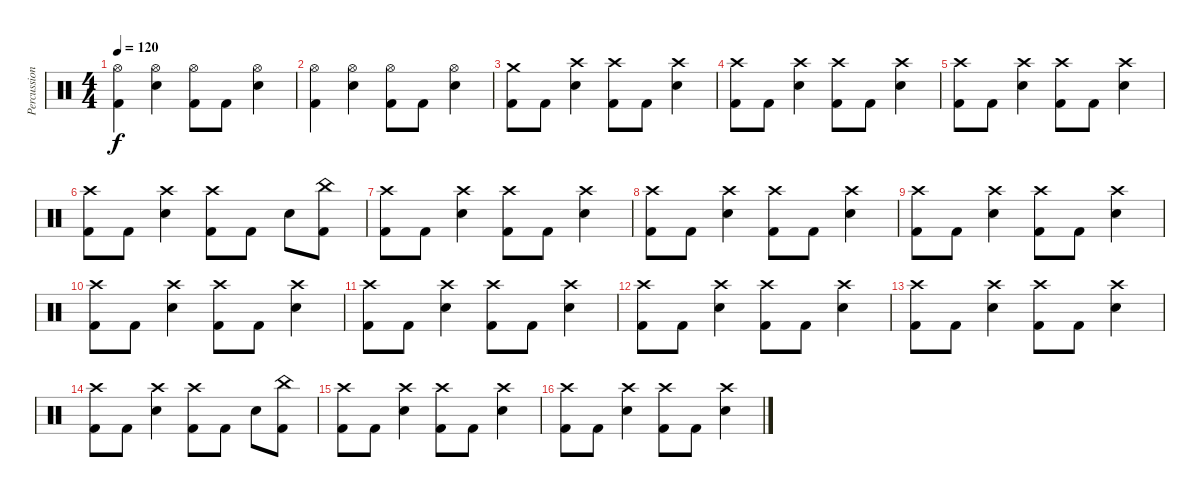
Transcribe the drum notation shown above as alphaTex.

\track ("Percussion" "Percussion") {instrument percussion}
\staff {score}
\articulation defaults
\ts (4 4)
\tempo 120
\clef neutral
\ks c
("Hi-Hat (open)" "Kick (hit) 2").4{dy f} ("Hi-Hat (open)" "Snare (hit) 2").4 ("Hi-Hat (open)" "Kick (hit) 2").8 "Kick (hit) 2".8 ("Hi-Hat (open)" "Snare (hit) 2").4 |
("Hi-Hat (open)" "Kick (hit) 2").4 ("Hi-Hat (open)" "Snare (hit) 2").4 ("Hi-Hat (open)" "Kick (hit) 2").8 "Kick (hit) 2".8 ("Hi-Hat (open)" "Snare (hit) 2").4 |
("Crash medium (hit)" "Kick (hit) 2").8 "Kick (hit) 2".8 ("Crash high (hit)" "Snare (hit) 2").4 ("Crash high (hit)" "Kick (hit) 2").8 "Kick (hit) 2".8 ("Crash high (hit)" "Snare (hit) 2").4 |
("Crash high (hit)" "Kick (hit) 2").8 "Kick (hit) 2".8 ("Crash high (hit)" "Snare (hit) 2").4 ("Crash high (hit)" "Kick (hit) 2").8 "Kick (hit) 2".8 ("Crash high (hit)" "Snare (hit) 2").4 |
("Crash high (hit)" "Kick (hit) 2").8 "Kick (hit) 2".8 ("Crash high (hit)" "Snare (hit) 2").4 ("Crash high (hit)" "Kick (hit) 2").8 "Kick (hit) 2".8 ("Crash high (hit)" "Snare (hit) 2").4 |
("Crash high (hit)" "Kick (hit) 2").8 "Kick (hit) 2".8 ("Crash high (hit)" "Snare (hit) 2").4 ("Crash high (hit)" "Kick (hit) 2").8 "Kick (hit) 2".8 "Snare (hit) 2".8 ("China (hit)" "Kick (hit) 2").8 |
("Crash high (hit)" "Kick (hit) 2").8 "Kick (hit) 2".8 ("Crash high (hit)" "Snare (hit) 2").4 ("Crash high (hit)" "Kick (hit) 2").8 "Kick (hit) 2".8 ("Crash high (hit)" "Snare (hit) 2").4 |
("Crash high (hit)" "Kick (hit) 2").8 "Kick (hit) 2".8 ("Crash high (hit)" "Snare (hit) 2").4 ("Crash high (hit)" "Kick (hit) 2").8 "Kick (hit) 2".8 ("Crash high (hit)" "Snare (hit) 2").4 |
("Crash high (hit)" "Kick (hit) 2").8 "Kick (hit) 2".8 ("Crash high (hit)" "Snare (hit) 2").4 ("Crash high (hit)" "Kick (hit) 2").8 "Kick (hit) 2".8 ("Crash high (hit)" "Snare (hit) 2").4 |
("Crash high (hit)" "Kick (hit) 2").8 "Kick (hit) 2".8 ("Crash high (hit)" "Snare (hit) 2").4 ("Crash high (hit)" "Kick (hit) 2").8 "Kick (hit) 2".8 ("Crash high (hit)" "Snare (hit) 2").4 |
("Crash high (hit)" "Kick (hit) 2").8 "Kick (hit) 2".8 ("Crash high (hit)" "Snare (hit) 2").4 ("Crash high (hit)" "Kick (hit) 2").8 "Kick (hit) 2".8 ("Crash high (hit)" "Snare (hit) 2").4 |
("Crash high (hit)" "Kick (hit) 2").8 "Kick (hit) 2".8 ("Crash high (hit)" "Snare (hit) 2").4 ("Crash high (hit)" "Kick (hit) 2").8 "Kick (hit) 2".8 ("Crash high (hit)" "Snare (hit) 2").4 |
("Crash high (hit)" "Kick (hit) 2").8 "Kick (hit) 2".8 ("Crash high (hit)" "Snare (hit) 2").4 ("Crash high (hit)" "Kick (hit) 2").8 "Kick (hit) 2".8 ("Crash high (hit)" "Snare (hit) 2").4 |
("Crash high (hit)" "Kick (hit) 2").8 "Kick (hit) 2".8 ("Crash high (hit)" "Snare (hit) 2").4 ("Crash high (hit)" "Kick (hit) 2").8 "Kick (hit) 2".8 "Snare (hit) 2".8 ("China (hit)" "Kick (hit) 2").8 |
("Crash high (hit)" "Kick (hit) 2").8 "Kick (hit) 2".8 ("Crash high (hit)" "Snare (hit) 2").4 ("Crash high (hit)" "Kick (hit) 2").8 "Kick (hit) 2".8 ("Crash high (hit)" "Snare (hit) 2").4 |
("Crash high (hit)" "Kick (hit) 2").8 "Kick (hit) 2".8 ("Crash high (hit)" "Snare (hit) 2").4 ("Crash high (hit)" "Kick (hit) 2").8 "Kick (hit) 2".8 ("Crash high (hit)" "Snare (hit) 2").4
